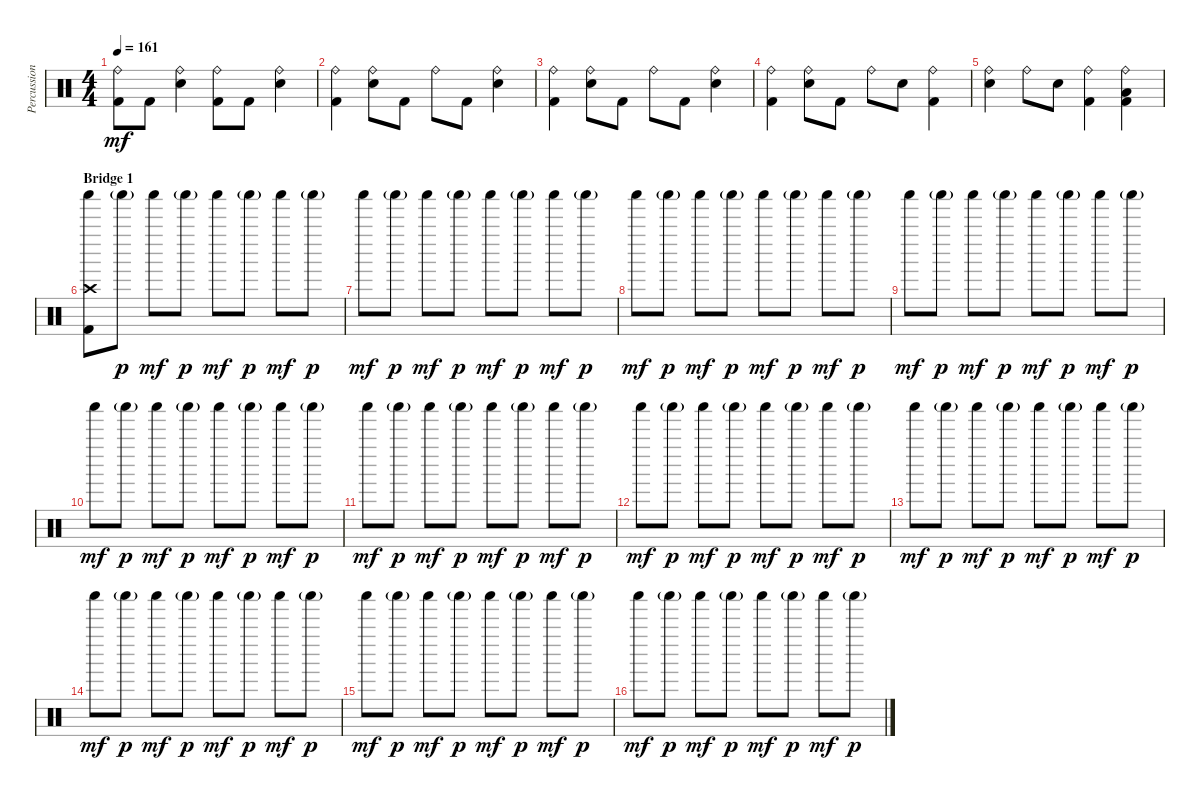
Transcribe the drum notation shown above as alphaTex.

\track ("Percussion" "Percussion") {instrument percussion}
\staff {score}
\articulation defaults
\ts (4 4)
\tempo 161
\clef neutral
\ks c
("Ride (bell)" "Kick (hit) 2").8{dy mf} "Kick (hit) 2".8 ("Ride (bell)" "Electric Snare (hit)").4 ("Ride (bell)" "Kick (hit) 2").8 "Kick (hit) 2".8 ("Ride (bell)" "Electric Snare (hit)").4 |
("Ride (bell)" "Kick (hit) 2").4 ("Ride (bell)" "Electric Snare (hit)").8 "Kick (hit) 2".8 "Ride (bell)".8 "Kick (hit) 2".8 ("Ride (bell)" "Electric Snare (hit)").4 |
("Ride (bell)" "Kick (hit) 2").4 ("Ride (bell)" "Electric Snare (hit)").8 "Kick (hit) 2".8 "Ride (bell)".8 "Kick (hit) 2".8 ("Ride (bell)" "Electric Snare (hit)").4 |
("Ride (bell)" "Kick (hit) 2").4 ("Ride (bell)" "Electric Snare (hit)").8 "Kick (hit) 2".8 "Ride (bell)".8 "Electric Snare (hit)".8 ("Ride (bell)" "Kick (hit) 2").4 |
("Ride (bell)" "Electric Snare (hit)").4 "Ride (bell)".8 "Electric Snare (hit)".8 ("Ride (bell)" "Kick (hit) 2").4 ("Ride (bell)" "Low Floor Tom (hit)" "Kick (hit) 2").4 |
\section ("" "Bridge 1")
("Crash high (hit)" "Shaker (hit)" "Kick (hit) 2").8 "Shaker (hit)"{g}.8{dy p} "Shaker (hit)".8{dy mf} "Shaker (hit)"{g}.8{dy p} "Shaker (hit)".8{dy mf} "Shaker (hit)"{g}.8{dy p} "Shaker (hit)".8{dy mf} "Shaker (hit)"{g}.8{dy p} |
"Shaker (hit)".8{dy mf} "Shaker (hit)"{g}.8{dy p} "Shaker (hit)".8{dy mf} "Shaker (hit)"{g}.8{dy p} "Shaker (hit)".8{dy mf} "Shaker (hit)"{g}.8{dy p} "Shaker (hit)".8{dy mf} "Shaker (hit)"{g}.8{dy p} |
"Shaker (hit)".8{dy mf} "Shaker (hit)"{g}.8{dy p} "Shaker (hit)".8{dy mf} "Shaker (hit)"{g}.8{dy p} "Shaker (hit)".8{dy mf} "Shaker (hit)"{g}.8{dy p} "Shaker (hit)".8{dy mf} "Shaker (hit)"{g}.8{dy p} |
"Shaker (hit)".8{dy mf} "Shaker (hit)"{g}.8{dy p} "Shaker (hit)".8{dy mf} "Shaker (hit)"{g}.8{dy p} "Shaker (hit)".8{dy mf} "Shaker (hit)"{g}.8{dy p} "Shaker (hit)".8{dy mf} "Shaker (hit)"{g}.8{dy p} |
"Shaker (hit)".8{dy mf} "Shaker (hit)"{g}.8{dy p} "Shaker (hit)".8{dy mf} "Shaker (hit)"{g}.8{dy p} "Shaker (hit)".8{dy mf} "Shaker (hit)"{g}.8{dy p} "Shaker (hit)".8{dy mf} "Shaker (hit)"{g}.8{dy p} |
"Shaker (hit)".8{dy mf} "Shaker (hit)"{g}.8{dy p} "Shaker (hit)".8{dy mf} "Shaker (hit)"{g}.8{dy p} "Shaker (hit)".8{dy mf} "Shaker (hit)"{g}.8{dy p} "Shaker (hit)".8{dy mf} "Shaker (hit)"{g}.8{dy p} |
"Shaker (hit)".8{dy mf} "Shaker (hit)"{g}.8{dy p} "Shaker (hit)".8{dy mf} "Shaker (hit)"{g}.8{dy p} "Shaker (hit)".8{dy mf} "Shaker (hit)"{g}.8{dy p} "Shaker (hit)".8{dy mf} "Shaker (hit)"{g}.8{dy p} |
"Shaker (hit)".8{dy mf} "Shaker (hit)"{g}.8{dy p} "Shaker (hit)".8{dy mf} "Shaker (hit)"{g}.8{dy p} "Shaker (hit)".8{dy mf} "Shaker (hit)"{g}.8{dy p} "Shaker (hit)".8{dy mf} "Shaker (hit)"{g}.8{dy p} |
"Shaker (hit)".8{dy mf} "Shaker (hit)"{g}.8{dy p} "Shaker (hit)".8{dy mf} "Shaker (hit)"{g}.8{dy p} "Shaker (hit)".8{dy mf} "Shaker (hit)"{g}.8{dy p} "Shaker (hit)".8{dy mf} "Shaker (hit)"{g}.8{dy p} |
"Shaker (hit)".8{dy mf} "Shaker (hit)"{g}.8{dy p} "Shaker (hit)".8{dy mf} "Shaker (hit)"{g}.8{dy p} "Shaker (hit)".8{dy mf} "Shaker (hit)"{g}.8{dy p} "Shaker (hit)".8{dy mf} "Shaker (hit)"{g}.8{dy p} |
"Shaker (hit)".8{dy mf} "Shaker (hit)"{g}.8{dy p} "Shaker (hit)".8{dy mf} "Shaker (hit)"{g}.8{dy p} "Shaker (hit)".8{dy mf} "Shaker (hit)"{g}.8{dy p} "Shaker (hit)".8{dy mf} "Shaker (hit)"{g}.8{dy p}
